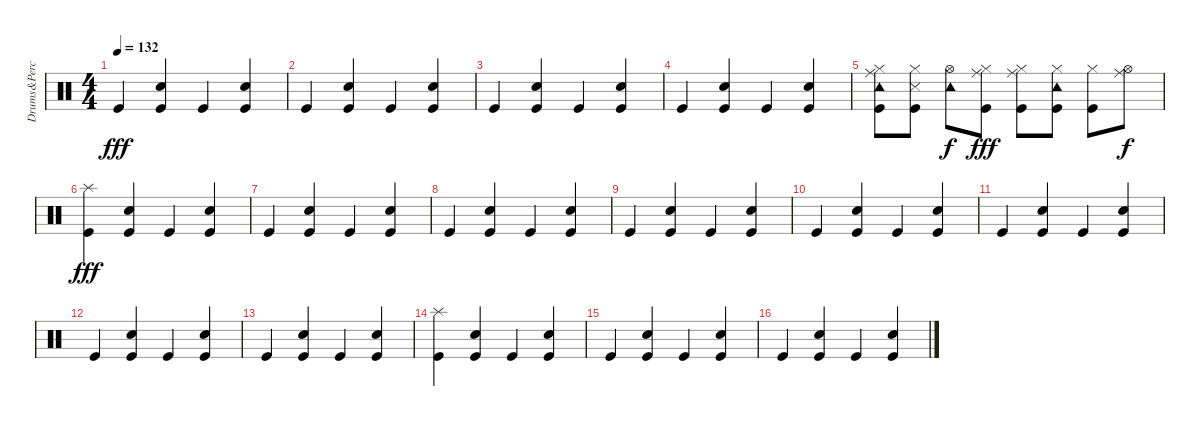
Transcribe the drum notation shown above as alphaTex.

\track ("Drums&Perc." "Drums&Perc") {instrument percussion}
\staff {score}
\articulation defaults
\ts (4 4)
\tempo 132
\clef neutral
\ks c "Kick (hit)".4{dy fff}
("Hand Clap (hit)" "Kick (hit)").4 "Kick (hit)".4 ("Hand Clap (hit)" "Kick (hit)").4 |
"Kick (hit)".4 ("Hand Clap (hit)" "Kick (hit)").4 "Kick (hit)".4 ("Hand Clap (hit)" "Kick (hit)").4 |
"Kick (hit)".4 ("Hand Clap (hit)" "Kick (hit)").4 "Kick (hit)".4 ("Hand Clap (hit)" "Kick (hit)").4 |
"Kick (hit)".4 ("Hand Clap (hit)" "Kick (hit)").4 "Kick (hit)".4 ("Hand Clap (hit)" "Kick (hit)").4 |
("Tambourine (hit)" "Kick (hit)" "Ride (middle)" "Hi-Hat (closed)").8 ("Snare (side stick) 3" "Hi-Hat (closed)" "Kick (hit)").8 ("Tambourine (hit)" "Hi-Hat (open)").8{dy f} ("Hi-Hat (closed)" "Ride (middle)" "Kick (hit)").8{dy fff} ("Hi-Hat (closed)" "Kick (hit)" "Ride (middle)").8 ("Tambourine (hit)" "Kick (hit)" "Hi-Hat (closed)").8 ("Kick (hit)" "Hi-Hat (closed)").8 ("Hi-Hat (open)" "Ride (middle)").8{dy f} |
("Splash (hit)" "Kick (hit)").4{dy fff} ("Hand Clap (hit)" "Kick (hit)").4 "Kick (hit)".4 ("Hand Clap (hit)" "Kick (hit)").4 |
"Kick (hit)".4 ("Hand Clap (hit)" "Kick (hit)").4 "Kick (hit)".4 ("Hand Clap (hit)" "Kick (hit)").4 |
"Kick (hit)".4 ("Hand Clap (hit)" "Kick (hit)").4 "Kick (hit)".4 ("Hand Clap (hit)" "Kick (hit)").4 |
"Kick (hit)".4 ("Hand Clap (hit)" "Kick (hit)").4 "Kick (hit)".4 ("Hand Clap (hit)" "Kick (hit)").4 |
"Kick (hit)".4 ("Hand Clap (hit)" "Kick (hit)").4 "Kick (hit)".4 ("Hand Clap (hit)" "Kick (hit)").4 |
"Kick (hit)".4 ("Hand Clap (hit)" "Kick (hit)").4 "Kick (hit)".4 ("Hand Clap (hit)" "Kick (hit)").4 |
"Kick (hit)".4 ("Hand Clap (hit)" "Kick (hit)").4 "Kick (hit)".4 ("Hand Clap (hit)" "Kick (hit)").4 |
"Kick (hit)".4 ("Hand Clap (hit)" "Kick (hit)").4 "Kick (hit)".4 ("Hand Clap (hit)" "Kick (hit)").4 |
("Splash (hit)" "Kick (hit)").4 ("Hand Clap (hit)" "Kick (hit)").4 "Kick (hit)".4 ("Hand Clap (hit)" "Kick (hit)").4 |
"Kick (hit)".4 ("Hand Clap (hit)" "Kick (hit)").4 "Kick (hit)".4 ("Hand Clap (hit)" "Kick (hit)").4 |
"Kick (hit)".4 ("Hand Clap (hit)" "Kick (hit)").4 "Kick (hit)".4 ("Hand Clap (hit)" "Kick (hit)").4
